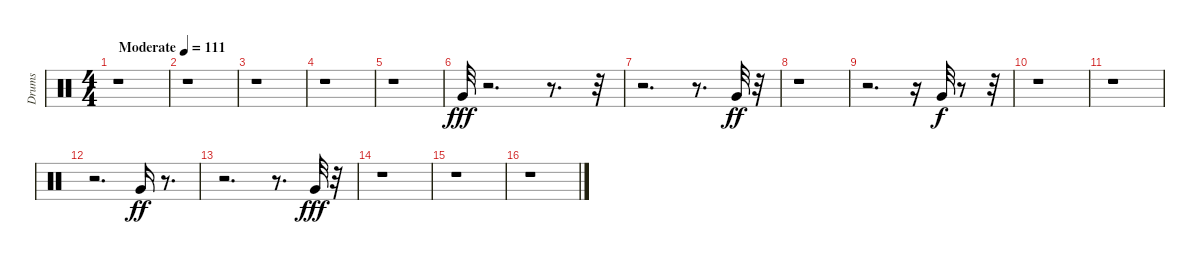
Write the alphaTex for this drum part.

\track ("Drums" "Drums") {instrument percussion}
\staff {score}
\articulation defaults
\ts (4 4)
\tempo (111 "Moderate")
\clef neutral
\ks c
r.1{dy fff} |
r.1 |
r.1 |
r.1 |
r.1 |
"Very Low Tom (hit)".32 r.2{d} r.8{d} r.32 |
r.2{d} r.8{d} "Very Low Tom (hit)".32{dy ff} r.32 |
r.1 |
r.2{d} r.16 "Very Low Tom (hit)".32{dy f} r.8 r.32 |
r.1 |
r.1 |
r.2{d} "Very Low Tom (hit)".16{dy ff} r.8{d} |
r.2{d} r.8{d} "Very Low Tom (hit)".32{dy fff} r.32 |
r.1 |
r.1 |
r.1
